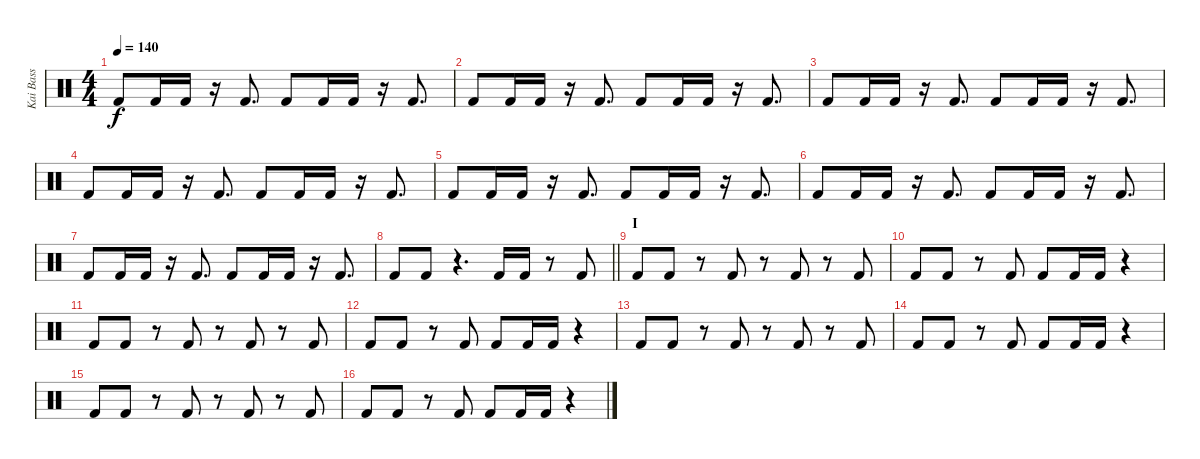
\track ("Kai Bass" "Kai Bass") {instrument percussion}
\staff {score}
\articulation defaults
\ts (4 4)
\tempo 140
\clef neutral
\ks c "Kick (hit) 2".8{dy f} "Kick (hit) 2".16 "Kick (hit) 2".16
r.16 "Kick (hit) 2".8{d} "Kick (hit) 2".8 "Kick (hit) 2".16 "Kick (hit) 2".16 r.16 "Kick (hit) 2".8{d} |
"Kick (hit) 2".8 "Kick (hit) 2".16 "Kick (hit) 2".16 r.16 "Kick (hit) 2".8{d} "Kick (hit) 2".8 "Kick (hit) 2".16 "Kick (hit) 2".16 r.16 "Kick (hit) 2".8{d} |
"Kick (hit) 2".8 "Kick (hit) 2".16 "Kick (hit) 2".16 r.16 "Kick (hit) 2".8{d} "Kick (hit) 2".8 "Kick (hit) 2".16 "Kick (hit) 2".16 r.16 "Kick (hit) 2".8{d} |
"Kick (hit) 2".8 "Kick (hit) 2".16 "Kick (hit) 2".16 r.16 "Kick (hit) 2".8{d} "Kick (hit) 2".8 "Kick (hit) 2".16 "Kick (hit) 2".16 r.16 "Kick (hit) 2".8{d} |
"Kick (hit) 2".8 "Kick (hit) 2".16 "Kick (hit) 2".16 r.16 "Kick (hit) 2".8{d} "Kick (hit) 2".8 "Kick (hit) 2".16 "Kick (hit) 2".16 r.16 "Kick (hit) 2".8{d} |
"Kick (hit) 2".8 "Kick (hit) 2".16 "Kick (hit) 2".16 r.16 "Kick (hit) 2".8{d} "Kick (hit) 2".8 "Kick (hit) 2".16 "Kick (hit) 2".16 r.16 "Kick (hit) 2".8{d} |
"Kick (hit) 2".8 "Kick (hit) 2".16 "Kick (hit) 2".16 r.16 "Kick (hit) 2".8{d} "Kick (hit) 2".8 "Kick (hit) 2".16 "Kick (hit) 2".16 r.16 "Kick (hit) 2".8{d} |
\barLineRight lightlight "Kick (hit) 2".8 "Kick (hit) 2".8
r.4{d} "Kick (hit) 2".16 "Kick (hit) 2".16 r.8 "Kick (hit) 2".8 |
\section ("" "I")
"Kick (hit) 2".8 "Kick (hit) 2".8 r.8 "Kick (hit) 2".8 r.8 "Kick (hit) 2".8 r.8 "Kick (hit) 2".8 |
"Kick (hit) 2".8 "Kick (hit) 2".8 r.8 "Kick (hit) 2".8 "Kick (hit) 2".8 "Kick (hit) 2".16 "Kick (hit) 2".16 r.4 |
"Kick (hit) 2".8 "Kick (hit) 2".8 r.8 "Kick (hit) 2".8 r.8 "Kick (hit) 2".8 r.8 "Kick (hit) 2".8 |
"Kick (hit) 2".8 "Kick (hit) 2".8 r.8 "Kick (hit) 2".8 "Kick (hit) 2".8 "Kick (hit) 2".16 "Kick (hit) 2".16 r.4 |
"Kick (hit) 2".8 "Kick (hit) 2".8 r.8 "Kick (hit) 2".8 r.8 "Kick (hit) 2".8 r.8 "Kick (hit) 2".8 |
"Kick (hit) 2".8 "Kick (hit) 2".8 r.8 "Kick (hit) 2".8 "Kick (hit) 2".8 "Kick (hit) 2".16 "Kick (hit) 2".16 r.4 |
"Kick (hit) 2".8 "Kick (hit) 2".8 r.8 "Kick (hit) 2".8 r.8 "Kick (hit) 2".8 r.8 "Kick (hit) 2".8 |
"Kick (hit) 2".8 "Kick (hit) 2".8 r.8 "Kick (hit) 2".8 "Kick (hit) 2".8 "Kick (hit) 2".16 "Kick (hit) 2".16 r.4
